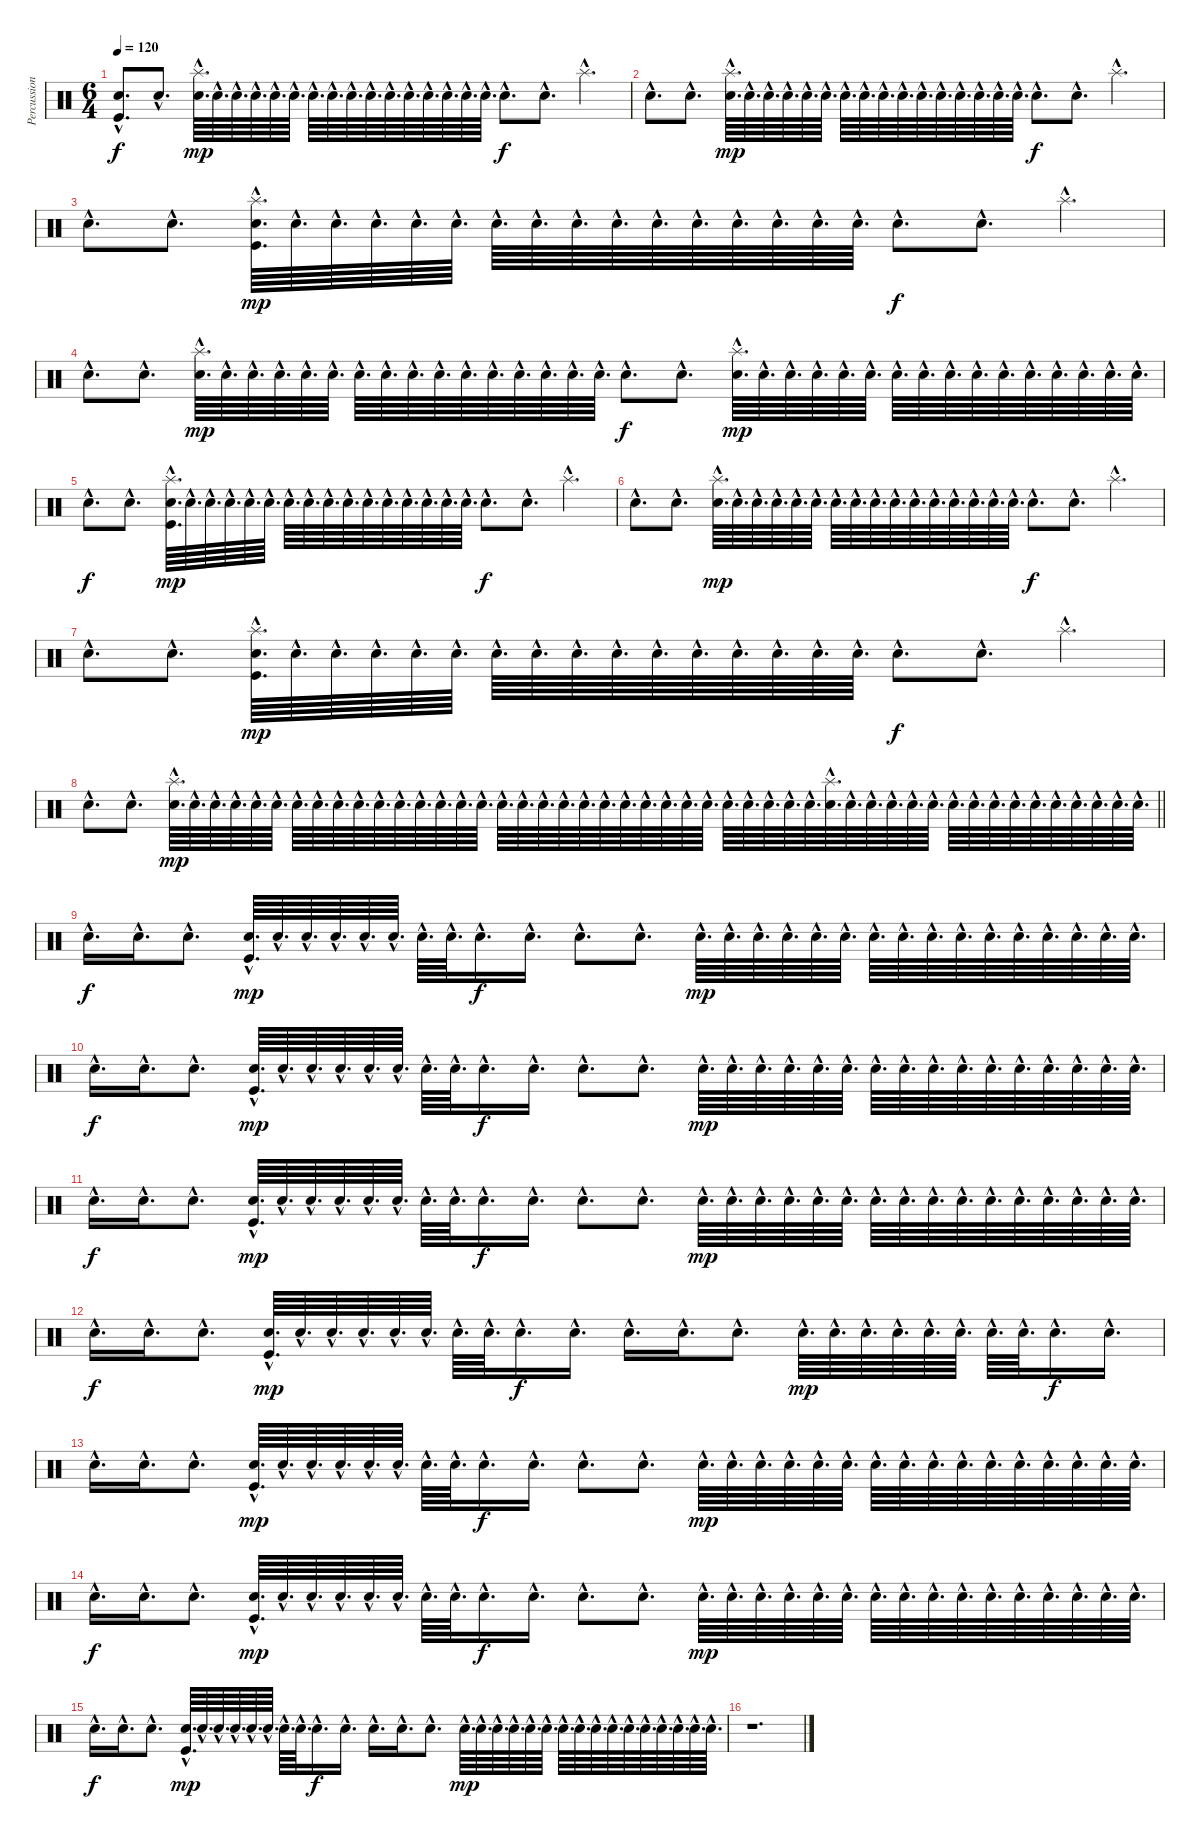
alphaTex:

\track ("Percussion" "Percussion") {instrument percussion}
\staff {score}
\articulation defaults
\ts (6 4)
\tempo 120
\clef neutral
\ks c
("Snare (hit) 2"{hac} "Kick (hit)"{hac}).8{d dy f} "Snare (hit) 2"{hac}.8{d} ("Snare (hit) 2"{hac} "Splash (hit)"{hac}).64{d dy mp} "Snare (hit) 2"{hac}.64{d} "Snare (hit) 2"{hac}.64{d} "Snare (hit) 2"{hac}.64{d} "Snare (hit) 2"{hac}.64{d} "Snare (hit) 2"{hac}.64{d} "Snare (hit) 2"{hac}.64{d} "Snare (hit) 2"{hac}.64{d} "Snare (hit) 2"{hac}.64{d} "Snare (hit) 2"{hac}.64{d} "Snare (hit) 2"{hac}.64{d} "Snare (hit) 2"{hac}.64{d} "Snare (hit) 2"{hac}.64{d} "Snare (hit) 2"{hac}.64{d} "Snare (hit) 2"{hac}.64{d} "Snare (hit) 2"{hac}.64{d} "Snare (hit) 2"{hac}.8{d dy f} "Snare (hit) 2"{hac}.8{d} "Splash (hit)"{hac}.4{d} |
"Snare (hit) 2"{hac}.8{d} "Snare (hit) 2"{hac}.8{d} ("Snare (hit) 2"{hac} "Splash (hit)"{hac}).64{d dy mp} "Snare (hit) 2"{hac}.64{d} "Snare (hit) 2"{hac}.64{d} "Snare (hit) 2"{hac}.64{d} "Snare (hit) 2"{hac}.64{d} "Snare (hit) 2"{hac}.64{d} "Snare (hit) 2"{hac}.64{d} "Snare (hit) 2"{hac}.64{d} "Snare (hit) 2"{hac}.64{d} "Snare (hit) 2"{hac}.64{d} "Snare (hit) 2"{hac}.64{d} "Snare (hit) 2"{hac}.64{d} "Snare (hit) 2"{hac}.64{d} "Snare (hit) 2"{hac}.64{d} "Snare (hit) 2"{hac}.64{d} "Snare (hit) 2"{hac}.64{d} "Snare (hit) 2"{hac}.8{d dy f} "Snare (hit) 2"{hac}.8{d} "Splash (hit)"{hac}.4{d} |
"Snare (hit) 2"{hac}.8{d} "Snare (hit) 2"{hac}.8{d} ("Snare (hit) 2"{hac} "Kick (hit)"{hac} "Splash (hit)"{hac}).64{d dy mp} "Snare (hit) 2"{hac}.64{d} "Snare (hit) 2"{hac}.64{d} "Snare (hit) 2"{hac}.64{d} "Snare (hit) 2"{hac}.64{d} "Snare (hit) 2"{hac}.64{d} "Snare (hit) 2"{hac}.64{d} "Snare (hit) 2"{hac}.64{d} "Snare (hit) 2"{hac}.64{d} "Snare (hit) 2"{hac}.64{d} "Snare (hit) 2"{hac}.64{d} "Snare (hit) 2"{hac}.64{d} "Snare (hit) 2"{hac}.64{d} "Snare (hit) 2"{hac}.64{d} "Snare (hit) 2"{hac}.64{d} "Snare (hit) 2"{hac}.64{d} "Snare (hit) 2"{hac}.8{d dy f} "Snare (hit) 2"{hac}.8{d} "Splash (hit)"{hac}.4{d} |
"Snare (hit) 2"{hac}.8{d} "Snare (hit) 2"{hac}.8{d} ("Snare (hit) 2"{hac} "Splash (hit)"{hac}).64{d dy mp} "Snare (hit) 2"{hac}.64{d} "Snare (hit) 2"{hac}.64{d} "Snare (hit) 2"{hac}.64{d} "Snare (hit) 2"{hac}.64{d} "Snare (hit) 2"{hac}.64{d} "Snare (hit) 2"{hac}.64{d} "Snare (hit) 2"{hac}.64{d} "Snare (hit) 2"{hac}.64{d} "Snare (hit) 2"{hac}.64{d} "Snare (hit) 2"{hac}.64{d} "Snare (hit) 2"{hac}.64{d} "Snare (hit) 2"{hac}.64{d} "Snare (hit) 2"{hac}.64{d} "Snare (hit) 2"{hac}.64{d} "Snare (hit) 2"{hac}.64{d} "Snare (hit) 2"{hac}.8{d dy f} "Snare (hit) 2"{hac}.8{d} ("Snare (hit) 2"{hac} "Splash (hit)"{hac}).64{d dy mp} "Snare (hit) 2"{hac}.64{d} "Snare (hit) 2"{hac}.64{d} "Snare (hit) 2"{hac}.64{d} "Snare (hit) 2"{hac}.64{d} "Snare (hit) 2"{hac}.64{d} "Snare (hit) 2"{hac}.64{d} "Snare (hit) 2"{hac}.64{d} "Snare (hit) 2"{hac}.64{d} "Snare (hit) 2"{hac}.64{d} "Snare (hit) 2"{hac}.64{d} "Snare (hit) 2"{hac}.64{d} "Snare (hit) 2"{hac}.64{d} "Snare (hit) 2"{hac}.64{d} "Snare (hit) 2"{hac}.64{d} "Snare (hit) 2"{hac}.64{d} |
"Snare (hit) 2"{hac}.8{d dy f} "Snare (hit) 2"{hac}.8{d} ("Snare (hit) 2"{hac} "Kick (hit)"{hac} "Splash (hit)"{hac}).64{d dy mp} "Snare (hit) 2"{hac}.64{d} "Snare (hit) 2"{hac}.64{d} "Snare (hit) 2"{hac}.64{d} "Snare (hit) 2"{hac}.64{d} "Snare (hit) 2"{hac}.64{d} "Snare (hit) 2"{hac}.64{d} "Snare (hit) 2"{hac}.64{d} "Snare (hit) 2"{hac}.64{d} "Snare (hit) 2"{hac}.64{d} "Snare (hit) 2"{hac}.64{d} "Snare (hit) 2"{hac}.64{d} "Snare (hit) 2"{hac}.64{d} "Snare (hit) 2"{hac}.64{d} "Snare (hit) 2"{hac}.64{d} "Snare (hit) 2"{hac}.64{d} "Snare (hit) 2"{hac}.8{d dy f} "Snare (hit) 2"{hac}.8{d} "Splash (hit)"{hac}.4{d} |
"Snare (hit) 2"{hac}.8{d} "Snare (hit) 2"{hac}.8{d} ("Snare (hit) 2"{hac} "Splash (hit)"{hac}).64{d dy mp} "Snare (hit) 2"{hac}.64{d} "Snare (hit) 2"{hac}.64{d} "Snare (hit) 2"{hac}.64{d} "Snare (hit) 2"{hac}.64{d} "Snare (hit) 2"{hac}.64{d} "Snare (hit) 2"{hac}.64{d} "Snare (hit) 2"{hac}.64{d} "Snare (hit) 2"{hac}.64{d} "Snare (hit) 2"{hac}.64{d} "Snare (hit) 2"{hac}.64{d} "Snare (hit) 2"{hac}.64{d} "Snare (hit) 2"{hac}.64{d} "Snare (hit) 2"{hac}.64{d} "Snare (hit) 2"{hac}.64{d} "Snare (hit) 2"{hac}.64{d} "Snare (hit) 2"{hac}.8{d dy f} "Snare (hit) 2"{hac}.8{d} "Splash (hit)"{hac}.4{d} |
"Snare (hit) 2"{hac}.8{d} "Snare (hit) 2"{hac}.8{d} ("Snare (hit) 2"{hac} "Kick (hit)"{hac} "Splash (hit)"{hac}).64{d dy mp} "Snare (hit) 2"{hac}.64{d} "Snare (hit) 2"{hac}.64{d} "Snare (hit) 2"{hac}.64{d} "Snare (hit) 2"{hac}.64{d} "Snare (hit) 2"{hac}.64{d} "Snare (hit) 2"{hac}.64{d} "Snare (hit) 2"{hac}.64{d} "Snare (hit) 2"{hac}.64{d} "Snare (hit) 2"{hac}.64{d} "Snare (hit) 2"{hac}.64{d} "Snare (hit) 2"{hac}.64{d} "Snare (hit) 2"{hac}.64{d} "Snare (hit) 2"{hac}.64{d} "Snare (hit) 2"{hac}.64{d} "Snare (hit) 2"{hac}.64{d} "Snare (hit) 2"{hac}.8{d dy f} "Snare (hit) 2"{hac}.8{d} "Splash (hit)"{hac}.4{d} |
\barLineRight lightlight "Snare (hit) 2"{hac}.8{d} "Snare (hit) 2"{hac}.8{d}
("Snare (hit) 2"{hac} "Splash (hit)"{hac}).64{d dy mp} "Snare (hit) 2"{hac}.64{d} "Snare (hit) 2"{hac}.64{d} "Snare (hit) 2"{hac}.64{d} "Snare (hit) 2"{hac}.64{d} "Snare (hit) 2"{hac}.64{d} "Snare (hit) 2"{hac}.64{d} "Snare (hit) 2"{hac}.64{d} "Snare (hit) 2"{hac}.64{d} "Snare (hit) 2"{hac}.64{d} "Snare (hit) 2"{hac}.64{d} "Snare (hit) 2"{hac}.64{d} "Snare (hit) 2"{hac}.64{d} "Snare (hit) 2"{hac}.64{d} "Snare (hit) 2"{hac}.64{d} "Snare (hit) 2"{hac}.64{d} "Snare (hit) 2"{hac}.64{d} "Snare (hit) 2"{hac}.64{d} "Snare (hit) 2"{hac}.64{d} "Snare (hit) 2"{hac}.64{d} "Snare (hit) 2"{hac}.64{d} "Snare (hit) 2"{hac}.64{d} "Snare (hit) 2"{hac}.64{d} "Snare (hit) 2"{hac}.64{d} "Snare (hit) 2"{hac}.64{d} "Snare (hit) 2"{hac}.64{d} "Snare (hit) 2"{hac}.64{d} "Snare (hit) 2"{hac}.64{d} "Snare (hit) 2"{hac}.64{d} "Snare (hit) 2"{hac}.64{d} "Snare (hit) 2"{hac}.64{d} "Snare (hit) 2"{hac}.64{d} ("Snare (hit) 2"{hac} "Splash (hit)"{hac}).64{d} "Snare (hit) 2"{hac}.64{d} "Snare (hit) 2"{hac}.64{d} "Snare (hit) 2"{hac}.64{d} "Snare (hit) 2"{hac}.64{d} "Snare (hit) 2"{hac}.64{d} "Snare (hit) 2"{hac}.64{d} "Snare (hit) 2"{hac}.64{d} "Snare (hit) 2"{hac}.64{d} "Snare (hit) 2"{hac}.64{d} "Snare (hit) 2"{hac}.64{d} "Snare (hit) 2"{hac}.64{d} "Snare (hit) 2"{hac}.64{d} "Snare (hit) 2"{hac}.64{d} "Snare (hit) 2"{hac}.64{d} "Snare (hit) 2"{hac}.64{d} |
"Snare (hit) 2"{hac}.16{d dy f} "Snare (hit) 2"{hac}.16{d} "Snare (hit) 2"{hac}.8{d} ("Snare (hit) 2"{hac} "Kick (hit)"{hac}).64{d dy mp} "Snare (hit) 2"{hac}.64{d} "Snare (hit) 2"{hac}.64{d} "Snare (hit) 2"{hac}.64{d} "Snare (hit) 2"{hac}.64{d} "Snare (hit) 2"{hac}.64{d} "Snare (hit) 2"{hac}.64{d} "Snare (hit) 2"{hac}.64{d} "Snare (hit) 2"{hac}.16{d dy f} "Snare (hit) 2"{hac}.16{d} "Snare (hit) 2"{hac}.8{d} "Snare (hit) 2"{hac}.8{d} "Snare (hit) 2"{hac}.64{d dy mp} "Snare (hit) 2"{hac}.64{d} "Snare (hit) 2"{hac}.64{d} "Snare (hit) 2"{hac}.64{d} "Snare (hit) 2"{hac}.64{d} "Snare (hit) 2"{hac}.64{d} "Snare (hit) 2"{hac}.64{d} "Snare (hit) 2"{hac}.64{d} "Snare (hit) 2"{hac}.64{d} "Snare (hit) 2"{hac}.64{d} "Snare (hit) 2"{hac}.64{d} "Snare (hit) 2"{hac}.64{d} "Snare (hit) 2"{hac}.64{d} "Snare (hit) 2"{hac}.64{d} "Snare (hit) 2"{hac}.64{d} "Snare (hit) 2"{hac}.64{d} |
"Snare (hit) 2"{hac}.16{d dy f} "Snare (hit) 2"{hac}.16{d} "Snare (hit) 2"{hac}.8{d} ("Snare (hit) 2"{hac} "Kick (hit)"{hac}).64{d dy mp} "Snare (hit) 2"{hac}.64{d} "Snare (hit) 2"{hac}.64{d} "Snare (hit) 2"{hac}.64{d} "Snare (hit) 2"{hac}.64{d} "Snare (hit) 2"{hac}.64{d} "Snare (hit) 2"{hac}.64{d} "Snare (hit) 2"{hac}.64{d} "Snare (hit) 2"{hac}.16{d dy f} "Snare (hit) 2"{hac}.16{d} "Snare (hit) 2"{hac}.8{d} "Snare (hit) 2"{hac}.8{d} "Snare (hit) 2"{hac}.64{d dy mp} "Snare (hit) 2"{hac}.64{d} "Snare (hit) 2"{hac}.64{d} "Snare (hit) 2"{hac}.64{d} "Snare (hit) 2"{hac}.64{d} "Snare (hit) 2"{hac}.64{d} "Snare (hit) 2"{hac}.64{d} "Snare (hit) 2"{hac}.64{d} "Snare (hit) 2"{hac}.64{d} "Snare (hit) 2"{hac}.64{d} "Snare (hit) 2"{hac}.64{d} "Snare (hit) 2"{hac}.64{d} "Snare (hit) 2"{hac}.64{d} "Snare (hit) 2"{hac}.64{d} "Snare (hit) 2"{hac}.64{d} "Snare (hit) 2"{hac}.64{d} |
"Snare (hit) 2"{hac}.16{d dy f} "Snare (hit) 2"{hac}.16{d} "Snare (hit) 2"{hac}.8{d} ("Snare (hit) 2"{hac} "Kick (hit)"{hac}).64{d dy mp} "Snare (hit) 2"{hac}.64{d} "Snare (hit) 2"{hac}.64{d} "Snare (hit) 2"{hac}.64{d} "Snare (hit) 2"{hac}.64{d} "Snare (hit) 2"{hac}.64{d} "Snare (hit) 2"{hac}.64{d} "Snare (hit) 2"{hac}.64{d} "Snare (hit) 2"{hac}.16{d dy f} "Snare (hit) 2"{hac}.16{d} "Snare (hit) 2"{hac}.8{d} "Snare (hit) 2"{hac}.8{d} "Snare (hit) 2"{hac}.64{d dy mp} "Snare (hit) 2"{hac}.64{d} "Snare (hit) 2"{hac}.64{d} "Snare (hit) 2"{hac}.64{d} "Snare (hit) 2"{hac}.64{d} "Snare (hit) 2"{hac}.64{d} "Snare (hit) 2"{hac}.64{d} "Snare (hit) 2"{hac}.64{d} "Snare (hit) 2"{hac}.64{d} "Snare (hit) 2"{hac}.64{d} "Snare (hit) 2"{hac}.64{d} "Snare (hit) 2"{hac}.64{d} "Snare (hit) 2"{hac}.64{d} "Snare (hit) 2"{hac}.64{d} "Snare (hit) 2"{hac}.64{d} "Snare (hit) 2"{hac}.64{d} |
"Snare (hit) 2"{hac}.16{d dy f} "Snare (hit) 2"{hac}.16{d} "Snare (hit) 2"{hac}.8{d} ("Snare (hit) 2"{hac} "Kick (hit)"{hac}).64{d dy mp} "Snare (hit) 2"{hac}.64{d} "Snare (hit) 2"{hac}.64{d} "Snare (hit) 2"{hac}.64{d} "Snare (hit) 2"{hac}.64{d} "Snare (hit) 2"{hac}.64{d} "Snare (hit) 2"{hac}.64{d} "Snare (hit) 2"{hac}.64{d} "Snare (hit) 2"{hac}.16{d dy f} "Snare (hit) 2"{hac}.16{d} "Snare (hit) 2"{hac}.16{d} "Snare (hit) 2"{hac}.16{d} "Snare (hit) 2"{hac}.8{d} "Snare (hit) 2"{hac}.64{d dy mp} "Snare (hit) 2"{hac}.64{d} "Snare (hit) 2"{hac}.64{d} "Snare (hit) 2"{hac}.64{d} "Snare (hit) 2"{hac}.64{d} "Snare (hit) 2"{hac}.64{d} "Snare (hit) 2"{hac}.64{d} "Snare (hit) 2"{hac}.64{d} "Snare (hit) 2"{hac}.16{d dy f} "Snare (hit) 2"{hac}.16{d} |
"Snare (hit) 2"{hac}.16{d} "Snare (hit) 2"{hac}.16{d} "Snare (hit) 2"{hac}.8{d} ("Snare (hit) 2"{hac} "Kick (hit)"{hac}).64{d dy mp} "Snare (hit) 2"{hac}.64{d} "Snare (hit) 2"{hac}.64{d} "Snare (hit) 2"{hac}.64{d} "Snare (hit) 2"{hac}.64{d} "Snare (hit) 2"{hac}.64{d} "Snare (hit) 2"{hac}.64{d} "Snare (hit) 2"{hac}.64{d} "Snare (hit) 2"{hac}.16{d dy f} "Snare (hit) 2"{hac}.16{d} "Snare (hit) 2"{hac}.8{d} "Snare (hit) 2"{hac}.8{d} "Snare (hit) 2"{hac}.64{d dy mp} "Snare (hit) 2"{hac}.64{d} "Snare (hit) 2"{hac}.64{d} "Snare (hit) 2"{hac}.64{d} "Snare (hit) 2"{hac}.64{d} "Snare (hit) 2"{hac}.64{d} "Snare (hit) 2"{hac}.64{d} "Snare (hit) 2"{hac}.64{d} "Snare (hit) 2"{hac}.64{d} "Snare (hit) 2"{hac}.64{d} "Snare (hit) 2"{hac}.64{d} "Snare (hit) 2"{hac}.64{d} "Snare (hit) 2"{hac}.64{d} "Snare (hit) 2"{hac}.64{d} "Snare (hit) 2"{hac}.64{d} "Snare (hit) 2"{hac}.64{d} |
"Snare (hit) 2"{hac}.16{d dy f} "Snare (hit) 2"{hac}.16{d} "Snare (hit) 2"{hac}.8{d} ("Snare (hit) 2"{hac} "Kick (hit)"{hac}).64{d dy mp} "Snare (hit) 2"{hac}.64{d} "Snare (hit) 2"{hac}.64{d} "Snare (hit) 2"{hac}.64{d} "Snare (hit) 2"{hac}.64{d} "Snare (hit) 2"{hac}.64{d} "Snare (hit) 2"{hac}.64{d} "Snare (hit) 2"{hac}.64{d} "Snare (hit) 2"{hac}.16{d dy f} "Snare (hit) 2"{hac}.16{d} "Snare (hit) 2"{hac}.8{d} "Snare (hit) 2"{hac}.8{d} "Snare (hit) 2"{hac}.64{d dy mp} "Snare (hit) 2"{hac}.64{d} "Snare (hit) 2"{hac}.64{d} "Snare (hit) 2"{hac}.64{d} "Snare (hit) 2"{hac}.64{d} "Snare (hit) 2"{hac}.64{d} "Snare (hit) 2"{hac}.64{d} "Snare (hit) 2"{hac}.64{d} "Snare (hit) 2"{hac}.64{d} "Snare (hit) 2"{hac}.64{d} "Snare (hit) 2"{hac}.64{d} "Snare (hit) 2"{hac}.64{d} "Snare (hit) 2"{hac}.64{d} "Snare (hit) 2"{hac}.64{d} "Snare (hit) 2"{hac}.64{d} "Snare (hit) 2"{hac}.64{d} |
"Snare (hit) 2"{hac}.16{d dy f} "Snare (hit) 2"{hac}.16{d} "Snare (hit) 2"{hac}.8{d} ("Snare (hit) 2"{hac} "Kick (hit)"{hac}).64{d dy mp} "Snare (hit) 2"{hac}.64{d} "Snare (hit) 2"{hac}.64{d} "Snare (hit) 2"{hac}.64{d} "Snare (hit) 2"{hac}.64{d} "Snare (hit) 2"{hac}.64{d} "Snare (hit) 2"{hac}.64{d} "Snare (hit) 2"{hac}.64{d} "Snare (hit) 2"{hac}.16{d dy f} "Snare (hit) 2"{hac}.16{d} "Snare (hit) 2"{hac}.16{d} "Snare (hit) 2"{hac}.16{d} "Snare (hit) 2"{hac}.8{d} "Snare (hit) 2"{hac}.64{d dy mp} "Snare (hit) 2"{hac}.64{d} "Snare (hit) 2"{hac}.64{d} "Snare (hit) 2"{hac}.64{d} "Snare (hit) 2"{hac}.64{d} "Snare (hit) 2"{hac}.64{d} "Snare (hit) 2"{hac}.64{d} "Snare (hit) 2"{hac}.64{d} "Snare (hit) 2"{hac}.64{d} "Snare (hit) 2"{hac}.64{d} "Snare (hit) 2"{hac}.64{d} "Snare (hit) 2"{hac}.64{d} "Snare (hit) 2"{hac}.64{d} "Snare (hit) 2"{hac}.64{d} "Snare (hit) 2"{hac}.64{d} "Snare (hit) 2"{hac}.64{d} |
r.1{d}
